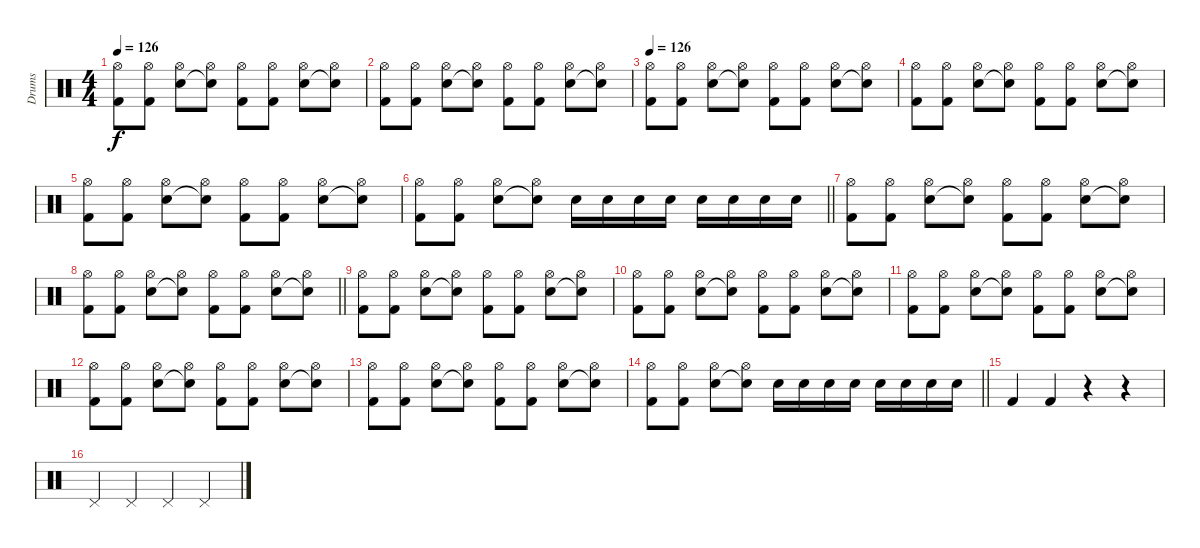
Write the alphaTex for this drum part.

\track ("Drums" "Drums") {instrument percussion}
\staff {score}
\articulation defaults
\ts (4 4)
\tempo 126
\clef neutral
\ks c
("Hi-Hat (open)" "Kick (hit) 2").8{dy f} ("Hi-Hat (open)" "Kick (hit) 2").8 ("Hi-Hat (open)" "Snare (hit) 2").8 ("Hi-Hat (open)" "Snare (hit) 2"{t}).8 ("Hi-Hat (open)" "Kick (hit) 2").8 ("Hi-Hat (open)" "Kick (hit) 2").8 ("Hi-Hat (open)" "Snare (hit) 2").8 ("Hi-Hat (open)" "Snare (hit) 2"{t}).8 |
("Hi-Hat (open)" "Kick (hit) 2").8 ("Hi-Hat (open)" "Kick (hit) 2").8 ("Hi-Hat (open)" "Snare (hit) 2").8 ("Hi-Hat (open)" "Snare (hit) 2"{t}).8 ("Hi-Hat (open)" "Kick (hit) 2").8 ("Hi-Hat (open)" "Kick (hit) 2").8 ("Hi-Hat (open)" "Snare (hit) 2").8 ("Hi-Hat (open)" "Snare (hit) 2"{t}).8 |
\tempo 126
("Hi-Hat (open)" "Kick (hit) 2").8 ("Hi-Hat (open)" "Kick (hit) 2").8 ("Hi-Hat (open)" "Snare (hit) 2").8 ("Hi-Hat (open)" "Snare (hit) 2"{t}).8 ("Hi-Hat (open)" "Kick (hit) 2").8 ("Hi-Hat (open)" "Kick (hit) 2").8 ("Hi-Hat (open)" "Snare (hit) 2").8 ("Hi-Hat (open)" "Snare (hit) 2"{t}).8 |
("Hi-Hat (open)" "Kick (hit) 2").8 ("Hi-Hat (open)" "Kick (hit) 2").8 ("Hi-Hat (open)" "Snare (hit) 2").8 ("Hi-Hat (open)" "Snare (hit) 2"{t}).8 ("Hi-Hat (open)" "Kick (hit) 2").8 ("Hi-Hat (open)" "Kick (hit) 2").8 ("Hi-Hat (open)" "Snare (hit) 2").8 ("Hi-Hat (open)" "Snare (hit) 2"{t}).8 |
("Hi-Hat (open)" "Kick (hit) 2").8 ("Hi-Hat (open)" "Kick (hit) 2").8 ("Hi-Hat (open)" "Snare (hit) 2").8 ("Hi-Hat (open)" "Snare (hit) 2"{t}).8 ("Hi-Hat (open)" "Kick (hit) 2").8 ("Hi-Hat (open)" "Kick (hit) 2").8 ("Hi-Hat (open)" "Snare (hit) 2").8 ("Hi-Hat (open)" "Snare (hit) 2"{t}).8 |
\barLineRight lightlight
("Hi-Hat (open)" "Kick (hit) 2").8 ("Hi-Hat (open)" "Kick (hit) 2").8 ("Hi-Hat (open)" "Snare (hit) 2").8 ("Hi-Hat (open)" "Snare (hit) 2"{t}).8 "Snare (hit) 2".16 "Snare (hit) 2".16 "Snare (hit) 2".16 "Snare (hit) 2".16 "Snare (hit) 2".16 "Snare (hit) 2".16 "Snare (hit) 2".16 "Snare (hit) 2".16 |
("Hi-Hat (open)" "Kick (hit) 2").8 ("Hi-Hat (open)" "Kick (hit) 2").8 ("Hi-Hat (open)" "Snare (hit) 2").8 ("Hi-Hat (open)" "Snare (hit) 2"{t}).8 ("Hi-Hat (open)" "Kick (hit) 2").8 ("Hi-Hat (open)" "Kick (hit) 2").8 ("Hi-Hat (open)" "Snare (hit) 2").8 ("Hi-Hat (open)" "Snare (hit) 2"{t}).8 |
\barLineRight lightlight
("Hi-Hat (open)" "Kick (hit) 2").8 ("Hi-Hat (open)" "Kick (hit) 2").8 ("Hi-Hat (open)" "Snare (hit) 2").8 ("Hi-Hat (open)" "Snare (hit) 2"{t}).8 ("Hi-Hat (open)" "Kick (hit) 2").8 ("Hi-Hat (open)" "Kick (hit) 2").8 ("Hi-Hat (open)" "Snare (hit) 2").8 ("Hi-Hat (open)" "Snare (hit) 2"{t}).8 |
("Hi-Hat (open)" "Kick (hit) 2").8 ("Hi-Hat (open)" "Kick (hit) 2").8 ("Hi-Hat (open)" "Snare (hit) 2").8 ("Hi-Hat (open)" "Snare (hit) 2"{t}).8 ("Hi-Hat (open)" "Kick (hit) 2").8 ("Hi-Hat (open)" "Kick (hit) 2").8 ("Hi-Hat (open)" "Snare (hit) 2").8 ("Hi-Hat (open)" "Snare (hit) 2"{t}).8 |
("Hi-Hat (open)" "Kick (hit) 2").8 ("Hi-Hat (open)" "Kick (hit) 2").8 ("Hi-Hat (open)" "Snare (hit) 2").8 ("Hi-Hat (open)" "Snare (hit) 2"{t}).8 ("Hi-Hat (open)" "Kick (hit) 2").8 ("Hi-Hat (open)" "Kick (hit) 2").8 ("Hi-Hat (open)" "Snare (hit) 2").8 ("Hi-Hat (open)" "Snare (hit) 2"{t}).8 |
("Hi-Hat (open)" "Kick (hit) 2").8 ("Hi-Hat (open)" "Kick (hit) 2").8 ("Hi-Hat (open)" "Snare (hit) 2").8 ("Hi-Hat (open)" "Snare (hit) 2"{t}).8 ("Hi-Hat (open)" "Kick (hit) 2").8 ("Hi-Hat (open)" "Kick (hit) 2").8 ("Hi-Hat (open)" "Snare (hit) 2").8 ("Hi-Hat (open)" "Snare (hit) 2"{t}).8 |
("Hi-Hat (open)" "Kick (hit) 2").8 ("Hi-Hat (open)" "Kick (hit) 2").8 ("Hi-Hat (open)" "Snare (hit) 2").8 ("Hi-Hat (open)" "Snare (hit) 2"{t}).8 ("Hi-Hat (open)" "Kick (hit) 2").8 ("Hi-Hat (open)" "Kick (hit) 2").8 ("Hi-Hat (open)" "Snare (hit) 2").8 ("Hi-Hat (open)" "Snare (hit) 2"{t}).8 |
("Hi-Hat (open)" "Kick (hit) 2").8 ("Hi-Hat (open)" "Kick (hit) 2").8 ("Hi-Hat (open)" "Snare (hit) 2").8 ("Hi-Hat (open)" "Snare (hit) 2"{t}).8 ("Hi-Hat (open)" "Kick (hit) 2").8 ("Hi-Hat (open)" "Kick (hit) 2").8 ("Hi-Hat (open)" "Snare (hit) 2").8 ("Hi-Hat (open)" "Snare (hit) 2"{t}).8 |
\barLineRight lightlight
("Hi-Hat (open)" "Kick (hit) 2").8 ("Hi-Hat (open)" "Kick (hit) 2").8 ("Hi-Hat (open)" "Snare (hit) 2").8 ("Hi-Hat (open)" "Snare (hit) 2"{t}).8 "Snare (hit) 2".16 "Snare (hit) 2".16 "Snare (hit) 2".16 "Snare (hit) 2".16 "Snare (hit) 2".16 "Snare (hit) 2".16 "Snare (hit) 2".16 "Snare (hit) 2".16 |
"Kick (hit) 2".4 "Kick (hit) 2".4 r.4 r.4 |
"Pedal Hi-Hat (hit)".4 "Pedal Hi-Hat (hit)".4 "Pedal Hi-Hat (hit)".4 "Pedal Hi-Hat (hit)".4
